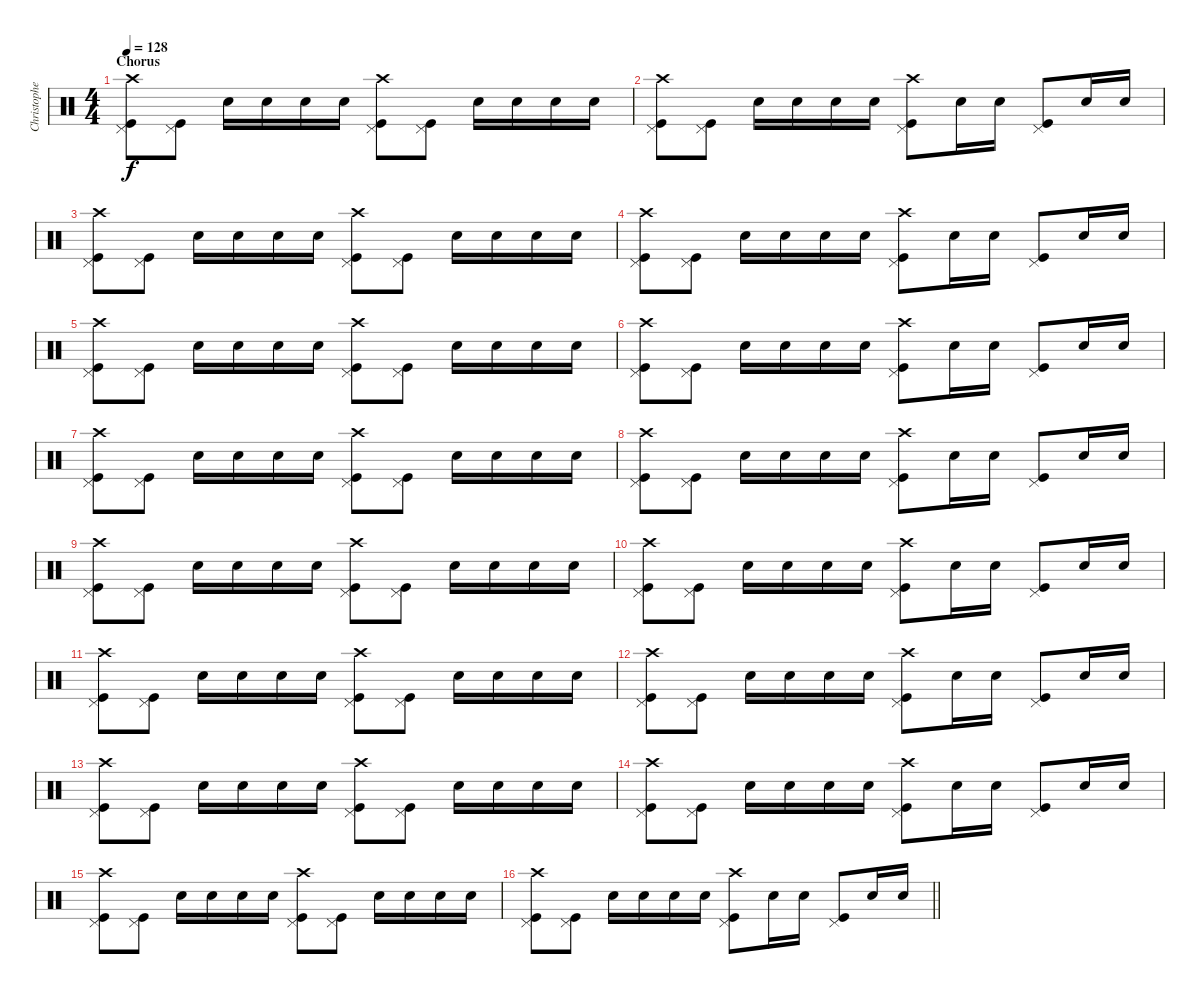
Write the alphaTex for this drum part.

\track ("Christopher - Drums" "Christophe") {instrument percussion}
\staff {score}
\articulation defaults
\ts (4 4)
\section ("" "Chorus")
\tempo 128
\clef neutral
\ks c
("Crash high (hit)" "Pedal Hi-Hat (hit)" "Kick (hit)").8{dy f} ("Pedal Hi-Hat (hit)" "Kick (hit)").8 "Snare (hit) 2".16 "Snare (hit) 2".16 "Snare (hit) 2".16 "Snare (hit) 2".16 ("Crash high (hit)" "Pedal Hi-Hat (hit)" "Kick (hit)").8 ("Pedal Hi-Hat (hit)" "Kick (hit)").8 "Snare (hit) 2".16 "Snare (hit) 2".16 "Snare (hit) 2".16 "Snare (hit) 2".16 |
("Crash high (hit)" "Pedal Hi-Hat (hit)" "Kick (hit)").8 ("Pedal Hi-Hat (hit)" "Kick (hit)").8 "Snare (hit) 2".16 "Snare (hit) 2".16 "Snare (hit) 2".16 "Snare (hit) 2".16 ("Crash high (hit)" "Pedal Hi-Hat (hit)" "Kick (hit)").8 "Snare (hit) 2".16 "Snare (hit) 2".16 ("Pedal Hi-Hat (hit)" "Kick (hit)").8 "Snare (hit) 2".16 "Snare (hit) 2".16 |
("Crash high (hit)" "Pedal Hi-Hat (hit)" "Kick (hit)").8 ("Pedal Hi-Hat (hit)" "Kick (hit)").8 "Snare (hit) 2".16 "Snare (hit) 2".16 "Snare (hit) 2".16 "Snare (hit) 2".16 ("Crash high (hit)" "Pedal Hi-Hat (hit)" "Kick (hit)").8 ("Pedal Hi-Hat (hit)" "Kick (hit)").8 "Snare (hit) 2".16 "Snare (hit) 2".16 "Snare (hit) 2".16 "Snare (hit) 2".16 |
("Crash high (hit)" "Pedal Hi-Hat (hit)" "Kick (hit)").8 ("Pedal Hi-Hat (hit)" "Kick (hit)").8 "Snare (hit) 2".16 "Snare (hit) 2".16 "Snare (hit) 2".16 "Snare (hit) 2".16 ("Crash high (hit)" "Pedal Hi-Hat (hit)" "Kick (hit)").8 "Snare (hit) 2".16 "Snare (hit) 2".16 ("Pedal Hi-Hat (hit)" "Kick (hit)").8 "Snare (hit) 2".16 "Snare (hit) 2".16 |
("Crash high (hit)" "Pedal Hi-Hat (hit)" "Kick (hit)").8 ("Pedal Hi-Hat (hit)" "Kick (hit)").8 "Snare (hit) 2".16 "Snare (hit) 2".16 "Snare (hit) 2".16 "Snare (hit) 2".16 ("Crash high (hit)" "Pedal Hi-Hat (hit)" "Kick (hit)").8 ("Pedal Hi-Hat (hit)" "Kick (hit)").8 "Snare (hit) 2".16 "Snare (hit) 2".16 "Snare (hit) 2".16 "Snare (hit) 2".16 |
("Crash high (hit)" "Pedal Hi-Hat (hit)" "Kick (hit)").8 ("Pedal Hi-Hat (hit)" "Kick (hit)").8 "Snare (hit) 2".16 "Snare (hit) 2".16 "Snare (hit) 2".16 "Snare (hit) 2".16 ("Crash high (hit)" "Pedal Hi-Hat (hit)" "Kick (hit)").8 "Snare (hit) 2".16 "Snare (hit) 2".16 ("Pedal Hi-Hat (hit)" "Kick (hit)").8 "Snare (hit) 2".16 "Snare (hit) 2".16 |
("Crash high (hit)" "Pedal Hi-Hat (hit)" "Kick (hit)").8 ("Pedal Hi-Hat (hit)" "Kick (hit)").8 "Snare (hit) 2".16 "Snare (hit) 2".16 "Snare (hit) 2".16 "Snare (hit) 2".16 ("Crash high (hit)" "Pedal Hi-Hat (hit)" "Kick (hit)").8 ("Pedal Hi-Hat (hit)" "Kick (hit)").8 "Snare (hit) 2".16 "Snare (hit) 2".16 "Snare (hit) 2".16 "Snare (hit) 2".16 |
("Crash high (hit)" "Pedal Hi-Hat (hit)" "Kick (hit)").8 ("Pedal Hi-Hat (hit)" "Kick (hit)").8 "Snare (hit) 2".16 "Snare (hit) 2".16 "Snare (hit) 2".16 "Snare (hit) 2".16 ("Crash high (hit)" "Pedal Hi-Hat (hit)" "Kick (hit)").8 "Snare (hit) 2".16 "Snare (hit) 2".16 ("Pedal Hi-Hat (hit)" "Kick (hit)").8 "Snare (hit) 2".16 "Snare (hit) 2".16 |
("Crash high (hit)" "Pedal Hi-Hat (hit)" "Kick (hit)").8 ("Pedal Hi-Hat (hit)" "Kick (hit)").8 "Snare (hit) 2".16 "Snare (hit) 2".16 "Snare (hit) 2".16 "Snare (hit) 2".16 ("Crash high (hit)" "Pedal Hi-Hat (hit)" "Kick (hit)").8 ("Pedal Hi-Hat (hit)" "Kick (hit)").8 "Snare (hit) 2".16 "Snare (hit) 2".16 "Snare (hit) 2".16 "Snare (hit) 2".16 |
("Crash high (hit)" "Pedal Hi-Hat (hit)" "Kick (hit)").8 ("Pedal Hi-Hat (hit)" "Kick (hit)").8 "Snare (hit) 2".16 "Snare (hit) 2".16 "Snare (hit) 2".16 "Snare (hit) 2".16 ("Crash high (hit)" "Pedal Hi-Hat (hit)" "Kick (hit)").8 "Snare (hit) 2".16 "Snare (hit) 2".16 ("Pedal Hi-Hat (hit)" "Kick (hit)").8 "Snare (hit) 2".16 "Snare (hit) 2".16 |
("Crash high (hit)" "Pedal Hi-Hat (hit)" "Kick (hit)").8 ("Pedal Hi-Hat (hit)" "Kick (hit)").8 "Snare (hit) 2".16 "Snare (hit) 2".16 "Snare (hit) 2".16 "Snare (hit) 2".16 ("Crash high (hit)" "Pedal Hi-Hat (hit)" "Kick (hit)").8 ("Pedal Hi-Hat (hit)" "Kick (hit)").8 "Snare (hit) 2".16 "Snare (hit) 2".16 "Snare (hit) 2".16 "Snare (hit) 2".16 |
("Crash high (hit)" "Pedal Hi-Hat (hit)" "Kick (hit)").8 ("Pedal Hi-Hat (hit)" "Kick (hit)").8 "Snare (hit) 2".16 "Snare (hit) 2".16 "Snare (hit) 2".16 "Snare (hit) 2".16 ("Crash high (hit)" "Pedal Hi-Hat (hit)" "Kick (hit)").8 "Snare (hit) 2".16 "Snare (hit) 2".16 ("Pedal Hi-Hat (hit)" "Kick (hit)").8 "Snare (hit) 2".16 "Snare (hit) 2".16 |
("Crash high (hit)" "Pedal Hi-Hat (hit)" "Kick (hit)").8 ("Pedal Hi-Hat (hit)" "Kick (hit)").8 "Snare (hit) 2".16 "Snare (hit) 2".16 "Snare (hit) 2".16 "Snare (hit) 2".16 ("Crash high (hit)" "Pedal Hi-Hat (hit)" "Kick (hit)").8 ("Pedal Hi-Hat (hit)" "Kick (hit)").8 "Snare (hit) 2".16 "Snare (hit) 2".16 "Snare (hit) 2".16 "Snare (hit) 2".16 |
("Crash high (hit)" "Pedal Hi-Hat (hit)" "Kick (hit)").8 ("Pedal Hi-Hat (hit)" "Kick (hit)").8 "Snare (hit) 2".16 "Snare (hit) 2".16 "Snare (hit) 2".16 "Snare (hit) 2".16 ("Crash high (hit)" "Pedal Hi-Hat (hit)" "Kick (hit)").8 "Snare (hit) 2".16 "Snare (hit) 2".16 ("Pedal Hi-Hat (hit)" "Kick (hit)").8 "Snare (hit) 2".16 "Snare (hit) 2".16 |
("Crash high (hit)" "Pedal Hi-Hat (hit)" "Kick (hit)").8 ("Pedal Hi-Hat (hit)" "Kick (hit)").8 "Snare (hit) 2".16 "Snare (hit) 2".16 "Snare (hit) 2".16 "Snare (hit) 2".16 ("Crash high (hit)" "Pedal Hi-Hat (hit)" "Kick (hit)").8 ("Pedal Hi-Hat (hit)" "Kick (hit)").8 "Snare (hit) 2".16 "Snare (hit) 2".16 "Snare (hit) 2".16 "Snare (hit) 2".16 |
\barLineRight lightlight
("Crash high (hit)" "Pedal Hi-Hat (hit)" "Kick (hit)").8 ("Pedal Hi-Hat (hit)" "Kick (hit)").8 "Snare (hit) 2".16 "Snare (hit) 2".16 "Snare (hit) 2".16 "Snare (hit) 2".16 ("Crash high (hit)" "Pedal Hi-Hat (hit)" "Kick (hit)").8 "Snare (hit) 2".16 "Snare (hit) 2".16 ("Pedal Hi-Hat (hit)" "Kick (hit)").8 "Snare (hit) 2".16 "Snare (hit) 2".16
